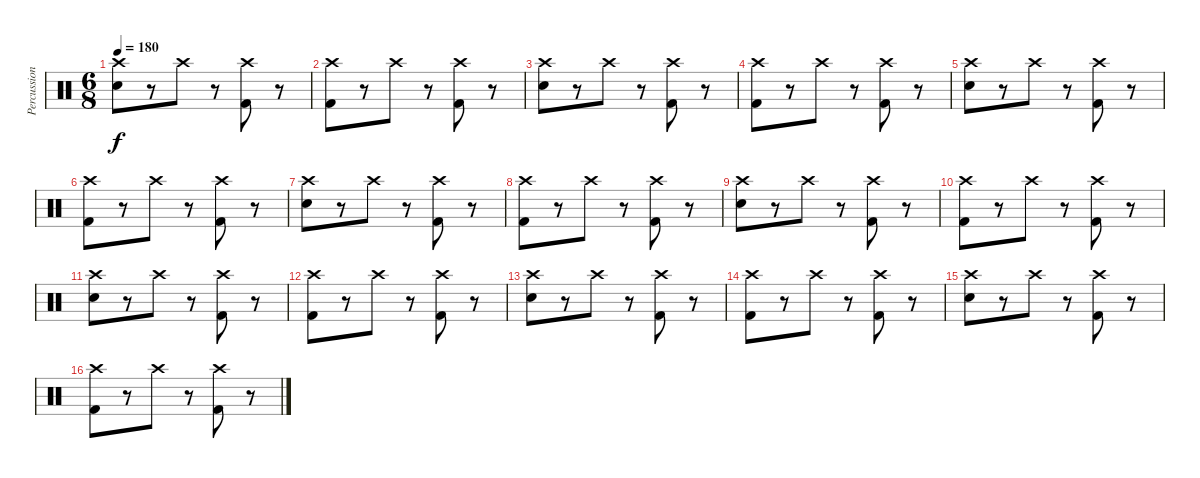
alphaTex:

\track ("Percussion" "Percussion") {instrument percussion}
\staff {score}
\articulation defaults
\ts (6 8)
\tempo 180
\clef neutral
\ks c
("Crash high (hit)" "Electric Snare (hit)").8{dy f} r.8 "Crash high (hit)".8 r.8 ("Crash high (hit)" "Kick (hit) 2").8 r.8 |
("Crash high (hit)" "Kick (hit) 2").8 r.8 "Crash high (hit)".8 r.8 ("Crash high (hit)" "Kick (hit) 2").8 r.8 |
("Crash high (hit)" "Electric Snare (hit)").8 r.8 "Crash high (hit)".8 r.8 ("Crash high (hit)" "Kick (hit) 2").8 r.8 |
("Crash high (hit)" "Kick (hit) 2").8 r.8 "Crash high (hit)".8 r.8 ("Crash high (hit)" "Kick (hit) 2").8 r.8 |
("Crash high (hit)" "Electric Snare (hit)").8 r.8 "Crash high (hit)".8 r.8 ("Crash high (hit)" "Kick (hit) 2").8 r.8 |
("Crash high (hit)" "Kick (hit) 2").8 r.8 "Crash high (hit)".8 r.8 ("Crash high (hit)" "Kick (hit) 2").8 r.8 |
("Crash high (hit)" "Electric Snare (hit)").8 r.8 "Crash high (hit)".8 r.8 ("Crash high (hit)" "Kick (hit) 2").8 r.8 |
("Crash high (hit)" "Kick (hit) 2").8 r.8 "Crash high (hit)".8 r.8 ("Crash high (hit)" "Kick (hit) 2").8 r.8 |
("Crash high (hit)" "Electric Snare (hit)").8 r.8 "Crash high (hit)".8 r.8 ("Crash high (hit)" "Kick (hit) 2").8 r.8 |
("Crash high (hit)" "Kick (hit) 2").8 r.8 "Crash high (hit)".8 r.8 ("Crash high (hit)" "Kick (hit) 2").8 r.8 |
("Crash high (hit)" "Electric Snare (hit)").8 r.8 "Crash high (hit)".8 r.8 ("Crash high (hit)" "Kick (hit) 2").8 r.8 |
("Crash high (hit)" "Kick (hit) 2").8 r.8 "Crash high (hit)".8 r.8 ("Crash high (hit)" "Kick (hit) 2").8 r.8 |
("Crash high (hit)" "Electric Snare (hit)").8 r.8 "Crash high (hit)".8 r.8 ("Crash high (hit)" "Kick (hit) 2").8 r.8 |
("Crash high (hit)" "Kick (hit) 2").8 r.8 "Crash high (hit)".8 r.8 ("Crash high (hit)" "Kick (hit) 2").8 r.8 |
("Crash high (hit)" "Electric Snare (hit)").8 r.8 "Crash high (hit)".8 r.8 ("Crash high (hit)" "Kick (hit) 2").8 r.8 |
("Crash high (hit)" "Kick (hit) 2").8 r.8 "Crash high (hit)".8 r.8 ("Crash high (hit)" "Kick (hit) 2").8 r.8
